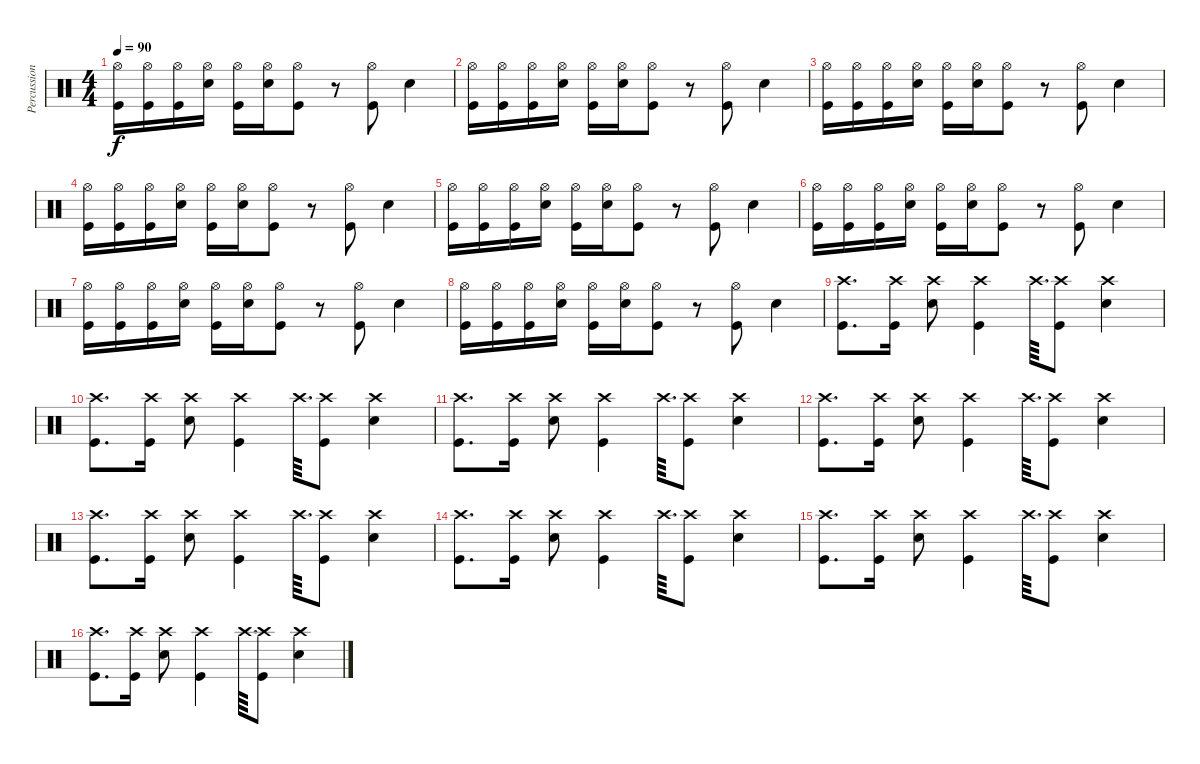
\track ("Percussion courtesy of unknown user" "Percussion") {instrument percussion}
\staff {score}
\articulation defaults
\ts (4 4)
\tempo 90
\clef neutral
\ks c
("Hi-Hat (open)" "Kick (hit)").16{dy f} ("Hi-Hat (open)" "Kick (hit)").16 ("Hi-Hat (open)" "Kick (hit)").16 ("Hi-Hat (open)" "Snare (hit) 2").16 ("Hi-Hat (open)" "Kick (hit)").16 ("Hi-Hat (open)" "Snare (hit) 2").16 ("Hi-Hat (open)" "Kick (hit)").8 r.8 ("Hi-Hat (open)" "Kick (hit)").8 "Snare (hit) 2".4 |
("Hi-Hat (open)" "Kick (hit)").16 ("Hi-Hat (open)" "Kick (hit)").16 ("Hi-Hat (open)" "Kick (hit)").16 ("Hi-Hat (open)" "Snare (hit) 2").16 ("Hi-Hat (open)" "Kick (hit)").16 ("Hi-Hat (open)" "Snare (hit) 2").16 ("Hi-Hat (open)" "Kick (hit)").8 r.8 ("Hi-Hat (open)" "Kick (hit)").8 "Snare (hit) 2".4 |
("Hi-Hat (open)" "Kick (hit)").16 ("Hi-Hat (open)" "Kick (hit)").16 ("Hi-Hat (open)" "Kick (hit)").16 ("Hi-Hat (open)" "Snare (hit) 2").16 ("Hi-Hat (open)" "Kick (hit)").16 ("Hi-Hat (open)" "Snare (hit) 2").16 ("Hi-Hat (open)" "Kick (hit)").8 r.8 ("Hi-Hat (open)" "Kick (hit)").8 "Snare (hit) 2".4 |
("Hi-Hat (open)" "Kick (hit)").16 ("Hi-Hat (open)" "Kick (hit)").16 ("Hi-Hat (open)" "Kick (hit)").16 ("Hi-Hat (open)" "Snare (hit) 2").16 ("Hi-Hat (open)" "Kick (hit)").16 ("Hi-Hat (open)" "Snare (hit) 2").16 ("Hi-Hat (open)" "Kick (hit)").8 r.8 ("Hi-Hat (open)" "Kick (hit)").8 "Snare (hit) 2".4 |
("Hi-Hat (open)" "Kick (hit)").16 ("Hi-Hat (open)" "Kick (hit)").16 ("Hi-Hat (open)" "Kick (hit)").16 ("Hi-Hat (open)" "Snare (hit) 2").16 ("Hi-Hat (open)" "Kick (hit)").16 ("Hi-Hat (open)" "Snare (hit) 2").16 ("Hi-Hat (open)" "Kick (hit)").8 r.8 ("Hi-Hat (open)" "Kick (hit)").8 "Snare (hit) 2".4 |
("Hi-Hat (open)" "Kick (hit)").16 ("Hi-Hat (open)" "Kick (hit)").16 ("Hi-Hat (open)" "Kick (hit)").16 ("Hi-Hat (open)" "Snare (hit) 2").16 ("Hi-Hat (open)" "Kick (hit)").16 ("Hi-Hat (open)" "Snare (hit) 2").16 ("Hi-Hat (open)" "Kick (hit)").8 r.8 ("Hi-Hat (open)" "Kick (hit)").8 "Snare (hit) 2".4 |
("Hi-Hat (open)" "Kick (hit)").16 ("Hi-Hat (open)" "Kick (hit)").16 ("Hi-Hat (open)" "Kick (hit)").16 ("Hi-Hat (open)" "Snare (hit) 2").16 ("Hi-Hat (open)" "Kick (hit)").16 ("Hi-Hat (open)" "Snare (hit) 2").16 ("Hi-Hat (open)" "Kick (hit)").8 r.8 ("Hi-Hat (open)" "Kick (hit)").8 "Snare (hit) 2".4 |
("Hi-Hat (open)" "Kick (hit)").16 ("Hi-Hat (open)" "Kick (hit)").16 ("Hi-Hat (open)" "Kick (hit)").16 ("Hi-Hat (open)" "Snare (hit) 2").16 ("Hi-Hat (open)" "Kick (hit)").16 ("Hi-Hat (open)" "Snare (hit) 2").16 ("Hi-Hat (open)" "Kick (hit)").8 r.8 ("Hi-Hat (open)" "Kick (hit)").8 "Snare (hit) 2".4 |
("Crash high (hit)" "Kick (hit)").8{d} ("Crash high (hit)" "Kick (hit)").16 ("Crash high (hit)" "Snare (hit) 2").8 ("Crash high (hit)" "Kick (hit)").4 "Crash high (hit)".64{d} ("Crash high (hit)" "Kick (hit)").8 ("Crash high (hit)" "Snare (hit) 2").4 |
("Crash high (hit)" "Kick (hit)").8{d} ("Crash high (hit)" "Kick (hit)").16 ("Crash high (hit)" "Snare (hit) 2").8 ("Crash high (hit)" "Kick (hit)").4 "Crash high (hit)".64{d} ("Crash high (hit)" "Kick (hit)").8 ("Crash high (hit)" "Snare (hit) 2").4 |
("Crash high (hit)" "Kick (hit)").8{d} ("Crash high (hit)" "Kick (hit)").16 ("Crash high (hit)" "Snare (hit) 2").8 ("Crash high (hit)" "Kick (hit)").4 "Crash high (hit)".64{d} ("Crash high (hit)" "Kick (hit)").8 ("Crash high (hit)" "Snare (hit) 2").4 |
("Crash high (hit)" "Kick (hit)").8{d} ("Crash high (hit)" "Kick (hit)").16 ("Crash high (hit)" "Snare (hit) 2").8 ("Crash high (hit)" "Kick (hit)").4 "Crash high (hit)".64{d} ("Crash high (hit)" "Kick (hit)").8 ("Crash high (hit)" "Snare (hit) 2").4 |
("Crash high (hit)" "Kick (hit)").8{d} ("Crash high (hit)" "Kick (hit)").16 ("Crash high (hit)" "Snare (hit) 2").8 ("Crash high (hit)" "Kick (hit)").4 "Crash high (hit)".64{d} ("Crash high (hit)" "Kick (hit)").8 ("Crash high (hit)" "Snare (hit) 2").4 |
("Crash high (hit)" "Kick (hit)").8{d} ("Crash high (hit)" "Kick (hit)").16 ("Crash high (hit)" "Snare (hit) 2").8 ("Crash high (hit)" "Kick (hit)").4 "Crash high (hit)".64{d} ("Crash high (hit)" "Kick (hit)").8 ("Crash high (hit)" "Snare (hit) 2").4 |
("Crash high (hit)" "Kick (hit)").8{d} ("Crash high (hit)" "Kick (hit)").16 ("Crash high (hit)" "Snare (hit) 2").8 ("Crash high (hit)" "Kick (hit)").4 "Crash high (hit)".64{d} ("Crash high (hit)" "Kick (hit)").8 ("Crash high (hit)" "Snare (hit) 2").4 |
("Crash high (hit)" "Kick (hit)").8{d} ("Crash high (hit)" "Kick (hit)").16 ("Crash high (hit)" "Snare (hit) 2").8 ("Crash high (hit)" "Kick (hit)").4 "Crash high (hit)".64{d} ("Crash high (hit)" "Kick (hit)").8 ("Crash high (hit)" "Snare (hit) 2").4
